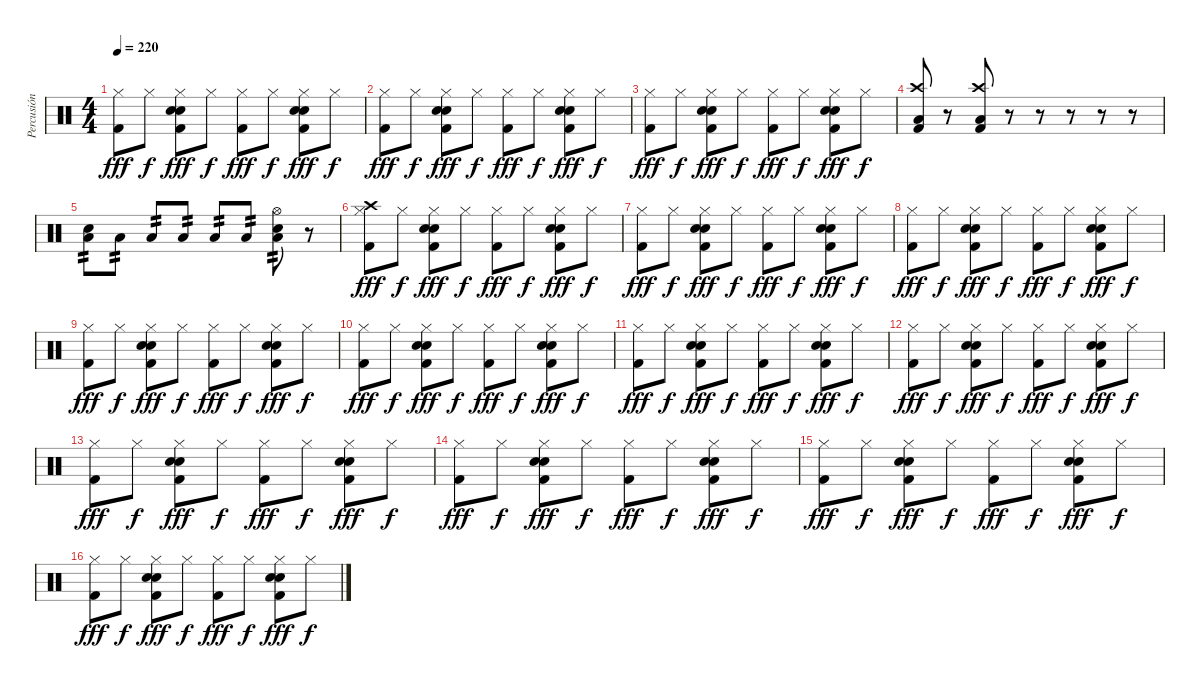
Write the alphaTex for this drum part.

\track ("Percusión" "Percusión") {instrument percussion}
\staff {score}
\articulation defaults
\ts (4 4)
\tempo 220
\clef neutral
\ks c
("Hi-Hat (closed)" "Kick (hit) 2").8{dy fff} "Hi-Hat (closed)".8{dy f} ("Hi-Hat (closed)" "Electric Snare (hit)" "Snare (hit) 2" "Kick (hit) 2").8{dy fff} "Hi-Hat (closed)".8{dy f} ("Hi-Hat (closed)" "Kick (hit) 2").8{dy fff} "Hi-Hat (closed)".8{dy f} ("Hi-Hat (closed)" "Electric Snare (hit)" "Snare (hit) 2" "Kick (hit) 2").8{dy fff} "Hi-Hat (closed)".8{dy f} |
("Hi-Hat (closed)" "Kick (hit) 2").8{dy fff} "Hi-Hat (closed)".8{dy f} ("Hi-Hat (closed)" "Electric Snare (hit)" "Snare (hit) 2" "Kick (hit) 2").8{dy fff} "Hi-Hat (closed)".8{dy f} ("Hi-Hat (closed)" "Kick (hit) 2").8{dy fff} "Hi-Hat (closed)".8{dy f} ("Hi-Hat (closed)" "Electric Snare (hit)" "Snare (hit) 2" "Kick (hit) 2").8{dy fff} "Hi-Hat (closed)".8{dy f} |
("Hi-Hat (closed)" "Kick (hit) 2").8{dy fff} "Hi-Hat (closed)".8{dy f} ("Hi-Hat (closed)" "Electric Snare (hit)" "Snare (hit) 2" "Kick (hit) 2").8{dy fff} "Hi-Hat (closed)".8{dy f} ("Hi-Hat (closed)" "Kick (hit) 2").8{dy fff} "Hi-Hat (closed)".8{dy f} ("Hi-Hat (closed)" "Electric Snare (hit)" "Snare (hit) 2" "Kick (hit) 2").8{dy fff} "Hi-Hat (closed)".8{dy f} |
("Crash high (hit)" "Kick (hit) 2" "Low Tom (hit)").8 r.8 ("Crash high (hit)" "Kick (hit) 2" "Low Tom (hit)").8 r.8 r.8 r.8 r.8 r.8 |
("Electric Snare (hit)" "Low Tom (hit)").8{tp 2} "Low Tom (hit)".8{tp 2} "Low Tom (hit)".8{tp 2} "Low Tom (hit)".8{tp 2} "Low Tom (hit)".8{tp 2} "Low Tom (hit)".8{tp 2} ("Hi-Hat (open)" "Snare (hit) 2" "Low Tom (hit)").8{tp 2} r.8 |
("Crash high (hit)" "Hi-Hat (closed)" "Kick (hit) 2").8{dy fff} "Hi-Hat (closed)".8{dy f} ("Hi-Hat (closed)" "Electric Snare (hit)" "Snare (hit) 2" "Kick (hit) 2").8{dy fff} "Hi-Hat (closed)".8{dy f} ("Hi-Hat (closed)" "Kick (hit) 2").8{dy fff} "Hi-Hat (closed)".8{dy f} ("Hi-Hat (closed)" "Electric Snare (hit)" "Snare (hit) 2" "Kick (hit) 2").8{dy fff} "Hi-Hat (closed)".8{dy f} |
("Hi-Hat (closed)" "Kick (hit) 2").8{dy fff} "Hi-Hat (closed)".8{dy f} ("Hi-Hat (closed)" "Electric Snare (hit)" "Snare (hit) 2" "Kick (hit) 2").8{dy fff} "Hi-Hat (closed)".8{dy f} ("Hi-Hat (closed)" "Kick (hit) 2").8{dy fff} "Hi-Hat (closed)".8{dy f} ("Hi-Hat (closed)" "Electric Snare (hit)" "Snare (hit) 2" "Kick (hit) 2").8{dy fff} "Hi-Hat (closed)".8{dy f} |
("Hi-Hat (closed)" "Kick (hit) 2").8{dy fff} "Hi-Hat (closed)".8{dy f} ("Hi-Hat (closed)" "Electric Snare (hit)" "Snare (hit) 2" "Kick (hit) 2").8{dy fff} "Hi-Hat (closed)".8{dy f} ("Hi-Hat (closed)" "Kick (hit) 2").8{dy fff} "Hi-Hat (closed)".8{dy f} ("Hi-Hat (closed)" "Electric Snare (hit)" "Snare (hit) 2" "Kick (hit) 2").8{dy fff} "Hi-Hat (closed)".8{dy f} |
("Hi-Hat (closed)" "Kick (hit) 2").8{dy fff} "Hi-Hat (closed)".8{dy f} ("Hi-Hat (closed)" "Electric Snare (hit)" "Snare (hit) 2" "Kick (hit) 2").8{dy fff} "Hi-Hat (closed)".8{dy f} ("Hi-Hat (closed)" "Kick (hit) 2").8{dy fff} "Hi-Hat (closed)".8{dy f} ("Hi-Hat (closed)" "Electric Snare (hit)" "Snare (hit) 2" "Kick (hit) 2").8{dy fff} "Hi-Hat (closed)".8{dy f} |
("Hi-Hat (closed)" "Kick (hit) 2").8{dy fff} "Hi-Hat (closed)".8{dy f} ("Hi-Hat (closed)" "Electric Snare (hit)" "Snare (hit) 2" "Kick (hit) 2").8{dy fff} "Hi-Hat (closed)".8{dy f} ("Hi-Hat (closed)" "Kick (hit) 2").8{dy fff} "Hi-Hat (closed)".8{dy f} ("Hi-Hat (closed)" "Electric Snare (hit)" "Snare (hit) 2" "Kick (hit) 2").8{dy fff} "Hi-Hat (closed)".8{dy f} |
("Hi-Hat (closed)" "Kick (hit) 2").8{dy fff} "Hi-Hat (closed)".8{dy f} ("Hi-Hat (closed)" "Electric Snare (hit)" "Snare (hit) 2" "Kick (hit) 2").8{dy fff} "Hi-Hat (closed)".8{dy f} ("Hi-Hat (closed)" "Kick (hit) 2").8{dy fff} "Hi-Hat (closed)".8{dy f} ("Hi-Hat (closed)" "Electric Snare (hit)" "Snare (hit) 2" "Kick (hit) 2").8{dy fff} "Hi-Hat (closed)".8{dy f} |
("Hi-Hat (closed)" "Kick (hit) 2").8{dy fff} "Hi-Hat (closed)".8{dy f} ("Hi-Hat (closed)" "Electric Snare (hit)" "Snare (hit) 2" "Kick (hit) 2").8{dy fff} "Hi-Hat (closed)".8{dy f} ("Hi-Hat (closed)" "Kick (hit) 2").8{dy fff} "Hi-Hat (closed)".8{dy f} ("Hi-Hat (closed)" "Electric Snare (hit)" "Snare (hit) 2" "Kick (hit) 2").8{dy fff} "Hi-Hat (closed)".8{dy f} |
("Hi-Hat (closed)" "Kick (hit) 2").8{dy fff} "Hi-Hat (closed)".8{dy f} ("Hi-Hat (closed)" "Electric Snare (hit)" "Snare (hit) 2" "Kick (hit) 2").8{dy fff} "Hi-Hat (closed)".8{dy f} ("Hi-Hat (closed)" "Kick (hit) 2").8{dy fff} "Hi-Hat (closed)".8{dy f} ("Hi-Hat (closed)" "Electric Snare (hit)" "Snare (hit) 2" "Kick (hit) 2").8{dy fff} "Hi-Hat (closed)".8{dy f} |
("Hi-Hat (closed)" "Kick (hit) 2").8{dy fff} "Hi-Hat (closed)".8{dy f} ("Hi-Hat (closed)" "Electric Snare (hit)" "Snare (hit) 2" "Kick (hit) 2").8{dy fff} "Hi-Hat (closed)".8{dy f} ("Hi-Hat (closed)" "Kick (hit) 2").8{dy fff} "Hi-Hat (closed)".8{dy f} ("Hi-Hat (closed)" "Electric Snare (hit)" "Snare (hit) 2" "Kick (hit) 2").8{dy fff} "Hi-Hat (closed)".8{dy f} |
("Hi-Hat (closed)" "Kick (hit) 2").8{dy fff} "Hi-Hat (closed)".8{dy f} ("Hi-Hat (closed)" "Electric Snare (hit)" "Snare (hit) 2" "Kick (hit) 2").8{dy fff} "Hi-Hat (closed)".8{dy f} ("Hi-Hat (closed)" "Kick (hit) 2").8{dy fff} "Hi-Hat (closed)".8{dy f} ("Hi-Hat (closed)" "Electric Snare (hit)" "Snare (hit) 2" "Kick (hit) 2").8{dy fff} "Hi-Hat (closed)".8{dy f} |
("Hi-Hat (closed)" "Kick (hit) 2").8{dy fff} "Hi-Hat (closed)".8{dy f} ("Hi-Hat (closed)" "Electric Snare (hit)" "Snare (hit) 2" "Kick (hit) 2").8{dy fff} "Hi-Hat (closed)".8{dy f} ("Hi-Hat (closed)" "Kick (hit) 2").8{dy fff} "Hi-Hat (closed)".8{dy f} ("Hi-Hat (closed)" "Electric Snare (hit)" "Snare (hit) 2" "Kick (hit) 2").8{dy fff} "Hi-Hat (closed)".8{dy f}
